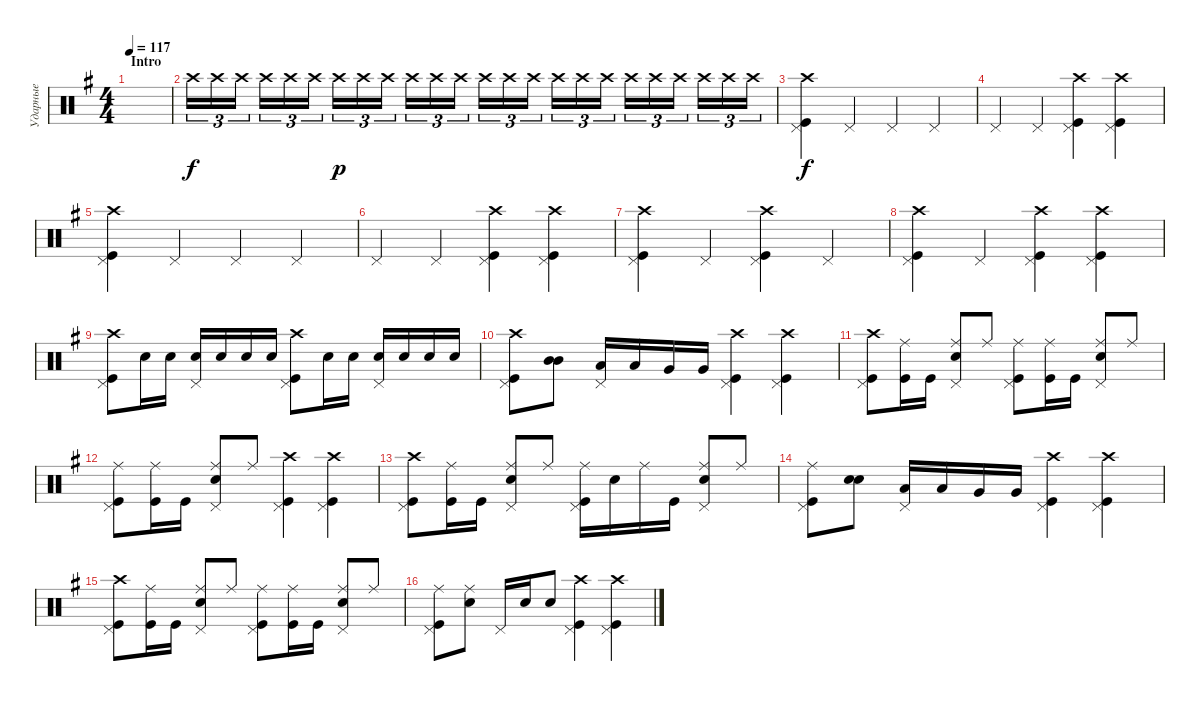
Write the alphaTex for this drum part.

\track ("Ударные" "Ударные") {instrument percussion}
\staff {score}
\articulation defaults
\ts (4 4)
\section ("" "Intro")
\tempo 117
\clef neutral
\ks eminor
|
"Crash high (hit)".16{tu (3 2)} "Crash high (hit)".16{tu (3 2)} "Crash high (hit)".16{tu (3 2) beam splitsecondary} "Crash high (hit)".16{tu (3 2)} "Crash high (hit)".16{tu (3 2)} "Crash high (hit)".16{tu (3 2)} "Crash high (hit)".16{tu (3 2) dy p} "Crash high (hit)".16{tu (3 2)} "Crash high (hit)".16{tu (3 2) beam splitsecondary} "Crash high (hit)".16{tu (3 2)} "Crash high (hit)".16{tu (3 2)} "Crash high (hit)".16{tu (3 2)} "Crash high (hit)".16{tu (3 2)} "Crash high (hit)".16{tu (3 2)} "Crash high (hit)".16{tu (3 2) beam splitsecondary} "Crash high (hit)".16{tu (3 2)} "Crash high (hit)".16{tu (3 2)} "Crash high (hit)".16{tu (3 2)} "Crash high (hit)".16{tu (3 2)} "Crash high (hit)".16{tu (3 2)} "Crash high (hit)".16{tu (3 2) beam splitsecondary} "Crash high (hit)".16{tu (3 2)} "Crash high (hit)".16{tu (3 2)} "Crash high (hit)".16{tu (3 2)} |
("Crash high (hit)" "Kick (hit)" "Pedal Hi-Hat (hit)").4{dy f} "Pedal Hi-Hat (hit)".4 "Pedal Hi-Hat (hit)".4 "Pedal Hi-Hat (hit)".4 |
"Pedal Hi-Hat (hit)".4 "Pedal Hi-Hat (hit)".4 ("Crash high (hit)" "Kick (hit)" "Pedal Hi-Hat (hit)").4 ("Kick (hit)" "Crash high (hit)" "Pedal Hi-Hat (hit)").4 |
("Crash high (hit)" "Kick (hit)" "Pedal Hi-Hat (hit)").4 "Pedal Hi-Hat (hit)".4 "Pedal Hi-Hat (hit)".4 "Pedal Hi-Hat (hit)".4 |
"Pedal Hi-Hat (hit)".4 "Pedal Hi-Hat (hit)".4 ("Crash high (hit)" "Kick (hit)" "Pedal Hi-Hat (hit)").4 ("Kick (hit)" "Crash high (hit)" "Pedal Hi-Hat (hit)").4 |
("Crash high (hit)" "Kick (hit)" "Pedal Hi-Hat (hit)").4 "Pedal Hi-Hat (hit)".4 ("Kick (hit)" "Crash high (hit)" "Pedal Hi-Hat (hit)").4 "Pedal Hi-Hat (hit)".4 |
("Kick (hit)" "Crash high (hit)" "Pedal Hi-Hat (hit)").4 "Pedal Hi-Hat (hit)".4 ("Crash high (hit)" "Kick (hit)" "Pedal Hi-Hat (hit)").4 ("Kick (hit)" "Crash high (hit)" "Pedal Hi-Hat (hit)").4 |
("Kick (hit)" "Crash high (hit)" "Pedal Hi-Hat (hit)").8 "Snare (hit) 2".16 "Snare (hit) 2".16 ("Snare (hit) 2" "Pedal Hi-Hat (hit)").16 "Snare (hit) 2".16 "Snare (hit) 2".16 "Snare (hit) 2".16 ("Kick (hit)" "Crash high (hit)" "Pedal Hi-Hat (hit)").8 "Snare (hit) 2".16 "Snare (hit) 2".16 ("Snare (hit) 2" "Pedal Hi-Hat (hit)").16 "Snare (hit) 2".16 "Snare (hit) 2".16 "Snare (hit) 2".16 |
("Kick (hit)" "Crash high (hit)" "Pedal Hi-Hat (hit)").8 ("Mid Tom (hit)" "Mid Tom (hit)").8{bd 240} ("Pedal Hi-Hat (hit)" "Low Tom (hit)").16 "Low Tom (hit)".16 "Very Low Tom (hit)".16 "Very Low Tom (hit)".16 ("Kick (hit)" "Crash high (hit)" "Pedal Hi-Hat (hit)").4 ("Kick (hit)" "Crash high (hit)" "Pedal Hi-Hat (hit)").4 |
("Kick (hit)" "Crash high (hit)" "Pedal Hi-Hat (hit)").8 ("Kick (hit)" "Ride (middle)").16 "Kick (hit)".16 ("Snare (hit) 2" "Ride (middle)" "Pedal Hi-Hat (hit)").8 "Ride (middle)".8 ("Kick (hit)" "Ride (middle)" "Pedal Hi-Hat (hit)").8 ("Kick (hit)" "Ride (middle)").16 "Kick (hit)".16 ("Snare (hit) 2" "Ride (middle)" "Pedal Hi-Hat (hit)").8 "Ride (middle)".8 |
("Kick (hit)" "Ride (middle)" "Pedal Hi-Hat (hit)").8 ("Ride (middle)" "Kick (hit)").16 "Kick (hit)".16 ("Ride (middle)" "Snare (hit) 2" "Pedal Hi-Hat (hit)").8 "Ride (middle)".8 ("Crash high (hit)" "Kick (hit)" "Pedal Hi-Hat (hit)").4 ("Crash high (hit)" "Kick (hit)" "Pedal Hi-Hat (hit)").4 |
("Kick (hit)" "Crash high (hit)" "Pedal Hi-Hat (hit)").8 ("Kick (hit)" "Ride (middle)").16 "Kick (hit)".16 ("Snare (hit) 2" "Ride (middle)" "Pedal Hi-Hat (hit)").8 "Ride (middle)".8 ("Kick (hit)" "Ride (middle)" "Pedal Hi-Hat (hit)").16 "Snare (hit) 2".16 "Ride (middle)".16 "Kick (hit)".16 ("Snare (hit) 2" "Ride (middle)" "Pedal Hi-Hat (hit)").8 "Ride (middle)".8 |
("Kick (hit)" "Ride (middle)" "Pedal Hi-Hat (hit)").8 ("Snare (hit) 2" "Snare (hit) 2").8{bd 240} ("Low Tom (hit)" "Pedal Hi-Hat (hit)").16 "Low Tom (hit)".16 "Very Low Tom (hit)".16 "Very Low Tom (hit)".16 ("Crash high (hit)" "Kick (hit)" "Pedal Hi-Hat (hit)").4 ("Crash high (hit)" "Kick (hit)" "Pedal Hi-Hat (hit)").4 |
("Kick (hit)" "Crash high (hit)" "Pedal Hi-Hat (hit)").8 ("Kick (hit)" "Ride (middle)").16 "Kick (hit)".16 ("Snare (hit) 2" "Ride (middle)" "Pedal Hi-Hat (hit)").8 "Ride (middle)".8 ("Kick (hit)" "Ride (middle)" "Pedal Hi-Hat (hit)").8 ("Kick (hit)" "Ride (middle)").16 "Kick (hit)".16 ("Snare (hit) 2" "Ride (middle)" "Pedal Hi-Hat (hit)").8 "Ride (middle)".8 |
("Kick (hit)" "Ride (middle)" "Pedal Hi-Hat (hit)").8 ("Ride (middle)" "Snare (hit) 2").8 "Pedal Hi-Hat (hit)".16 "Snare (hit) 2".16 "Snare (hit) 2".8 ("Crash high (hit)" "Kick (hit)" "Pedal Hi-Hat (hit)").4 ("Crash high (hit)" "Kick (hit)" "Pedal Hi-Hat (hit)").4
